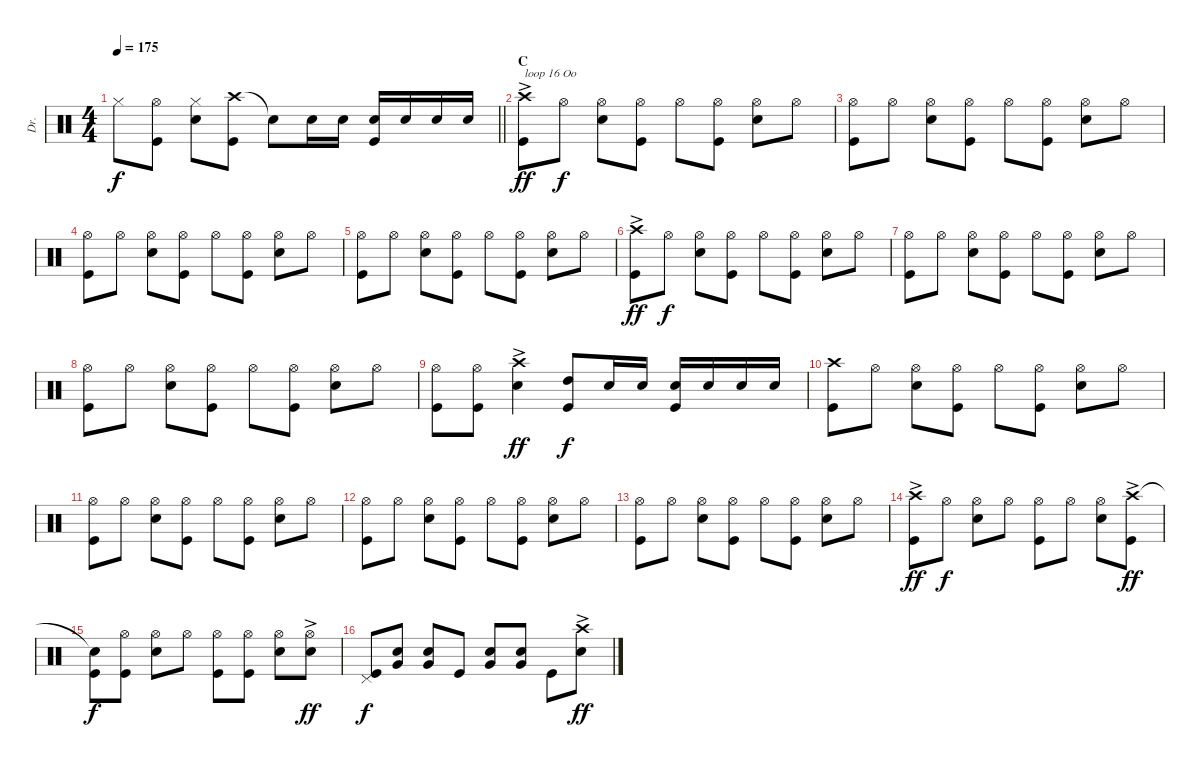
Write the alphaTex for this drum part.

\track ("Dr." "Dr.") {instrument percussion}
\staff {score}
\articulation defaults
\ts (4 4)
\tempo 175
\clef neutral
\barLineRight lightlight
\ks c "Hi-Hat (closed)".8{dy f}
("Hi-Hat (open)" "Kick (hit)").8 ("Hi-Hat (closed)" "Snare (hit) 2").8 ("Crash high (hit)" "Kick (hit)").8 "Snare (hit)"{t}.8 "Snare (hit) 2".16 "Snare (hit) 2".16 ("Snare (hit) 2" "Kick (hit)").16 "Snare (hit) 2".16 "Snare (hit) 2".16 "Snare (hit) 2".16 |
\section ("" "C")
("Crash high (hit)"{ac} "Kick (hit)"{ac}).8{txt "loop 16 Oo" dy ff} "Hi-Hat (open)".8{dy f} ("Hi-Hat (open)" "Snare (hit) 2").8 ("Hi-Hat (open)" "Kick (hit)").8 "Hi-Hat (open)".8 ("Hi-Hat (open)" "Kick (hit)").8 ("Hi-Hat (open)" "Snare (hit) 2").8 "Hi-Hat (open)".8 |
("Hi-Hat (open)" "Kick (hit)").8 "Hi-Hat (open)".8 ("Hi-Hat (open)" "Snare (hit) 2").8 ("Hi-Hat (open)" "Kick (hit)").8 "Hi-Hat (open)".8 ("Hi-Hat (open)" "Kick (hit)").8 ("Hi-Hat (open)" "Snare (hit) 2").8 "Hi-Hat (open)".8 |
("Hi-Hat (open)" "Kick (hit)").8 "Hi-Hat (open)".8 ("Hi-Hat (open)" "Snare (hit) 2").8 ("Hi-Hat (open)" "Kick (hit)").8 "Hi-Hat (open)".8 ("Hi-Hat (open)" "Kick (hit)").8 ("Hi-Hat (open)" "Snare (hit) 2").8 "Hi-Hat (open)".8 |
("Hi-Hat (open)" "Kick (hit)").8 "Hi-Hat (open)".8 ("Hi-Hat (open)" "Snare (hit) 2").8 ("Hi-Hat (open)" "Kick (hit)").8 "Hi-Hat (open)".8 ("Hi-Hat (open)" "Kick (hit)").8 ("Hi-Hat (open)" "Snare (hit) 2").8 "Hi-Hat (open)".8 |
("Crash high (hit)"{ac} "Kick (hit)"{ac}).8{dy ff} "Hi-Hat (open)".8{dy f} ("Hi-Hat (open)" "Snare (hit) 2").8 ("Hi-Hat (open)" "Kick (hit)").8 "Hi-Hat (open)".8 ("Hi-Hat (open)" "Kick (hit)").8 ("Hi-Hat (open)" "Snare (hit) 2").8 "Hi-Hat (open)".8 |
("Hi-Hat (open)" "Kick (hit)").8 "Hi-Hat (open)".8 ("Hi-Hat (open)" "Snare (hit) 2").8 ("Hi-Hat (open)" "Kick (hit)").8 "Hi-Hat (open)".8 ("Hi-Hat (open)" "Kick (hit)").8 ("Hi-Hat (open)" "Snare (hit) 2").8 "Hi-Hat (open)".8 |
("Hi-Hat (open)" "Kick (hit)").8 "Hi-Hat (open)".8 ("Hi-Hat (open)" "Snare (hit) 2").8 ("Hi-Hat (open)" "Kick (hit)").8 "Hi-Hat (open)".8 ("Hi-Hat (open)" "Kick (hit)").8 ("Hi-Hat (open)" "Snare (hit) 2").8 "Hi-Hat (open)".8 |
("Hi-Hat (open)" "Kick (hit)").8 ("Hi-Hat (open)" "Kick (hit)").8 ("Crash high (hit)"{ac} "Snare (hit) 2"{ac}).4{dy ff} ("High Tom (hit)" "Kick (hit)").8{dy f} "Snare (hit) 2".16 "Snare (hit) 2".16 ("Snare (hit) 2" "Kick (hit)").16 "Snare (hit) 2".16 "Snare (hit) 2".16 "Snare (hit) 2".16 |
("Crash high (hit)" "Kick (hit)").8 "Hi-Hat (open)".8 ("Hi-Hat (open)" "Snare (hit) 2").8 ("Hi-Hat (open)" "Kick (hit)").8 "Hi-Hat (open)".8 ("Hi-Hat (open)" "Kick (hit)").8 ("Hi-Hat (open)" "Snare (hit) 2").8 "Hi-Hat (open)".8 |
("Hi-Hat (open)" "Kick (hit)").8 "Hi-Hat (open)".8 ("Hi-Hat (open)" "Snare (hit) 2").8 ("Hi-Hat (open)" "Kick (hit)").8 "Hi-Hat (open)".8 ("Hi-Hat (open)" "Kick (hit)").8 ("Hi-Hat (open)" "Snare (hit) 2").8 "Hi-Hat (open)".8 |
("Hi-Hat (open)" "Kick (hit)").8 "Hi-Hat (open)".8 ("Hi-Hat (open)" "Snare (hit) 2").8 ("Hi-Hat (open)" "Kick (hit)").8 "Hi-Hat (open)".8 ("Hi-Hat (open)" "Kick (hit)").8 ("Hi-Hat (open)" "Snare (hit) 2").8 "Hi-Hat (open)".8 |
("Hi-Hat (open)" "Kick (hit)").8 "Hi-Hat (open)".8 ("Hi-Hat (open)" "Snare (hit) 2").8 ("Hi-Hat (open)" "Kick (hit)").8 "Hi-Hat (open)".8 ("Hi-Hat (open)" "Kick (hit)").8 ("Hi-Hat (open)" "Snare (hit) 2").8 "Hi-Hat (open)".8 |
("Crash high (hit)"{ac} "Kick (hit)"{ac}).8{dy ff} "Hi-Hat (open)".8{dy f} ("Hi-Hat (open)" "Snare (hit) 2").8 "Hi-Hat (open)".8 ("Hi-Hat (open)" "Kick (hit)").8 "Hi-Hat (open)".8 ("Hi-Hat (open)" "Snare (hit) 2").8 ("Crash high (hit)"{ac} "Kick (hit)"{ac}).8{dy ff} |
("Snare (hit)"{t} "Kick (hit)").8{dy f} ("Hi-Hat (open)" "Kick (hit)").8 ("Hi-Hat (open)" "Snare (hit) 2").8 "Hi-Hat (open)".8 ("Hi-Hat (open)" "Kick (hit)").8 ("Hi-Hat (open)" "Kick (hit)").8 ("Hi-Hat (open)" "Snare (hit) 2").8 ("Hi-Hat (open)"{ac} "Snare (hit) 2"{ac}).8{dy ff} |
("Pedal Hi-Hat (hit)" "Kick (hit)").8{dy f} ("Very Low Tom (hit)" "Snare (hit) 2").8 ("Very Low Tom (hit)" "Snare (hit) 2").8 "Kick (hit)".8 ("Very Low Tom (hit)" "Snare (hit) 2").8 ("Very Low Tom (hit)" "Snare (hit) 2").8 "Kick (hit)".8 ("Crash high (hit)"{ac} "Snare (hit) 2"{ac}).8{dy ff}
